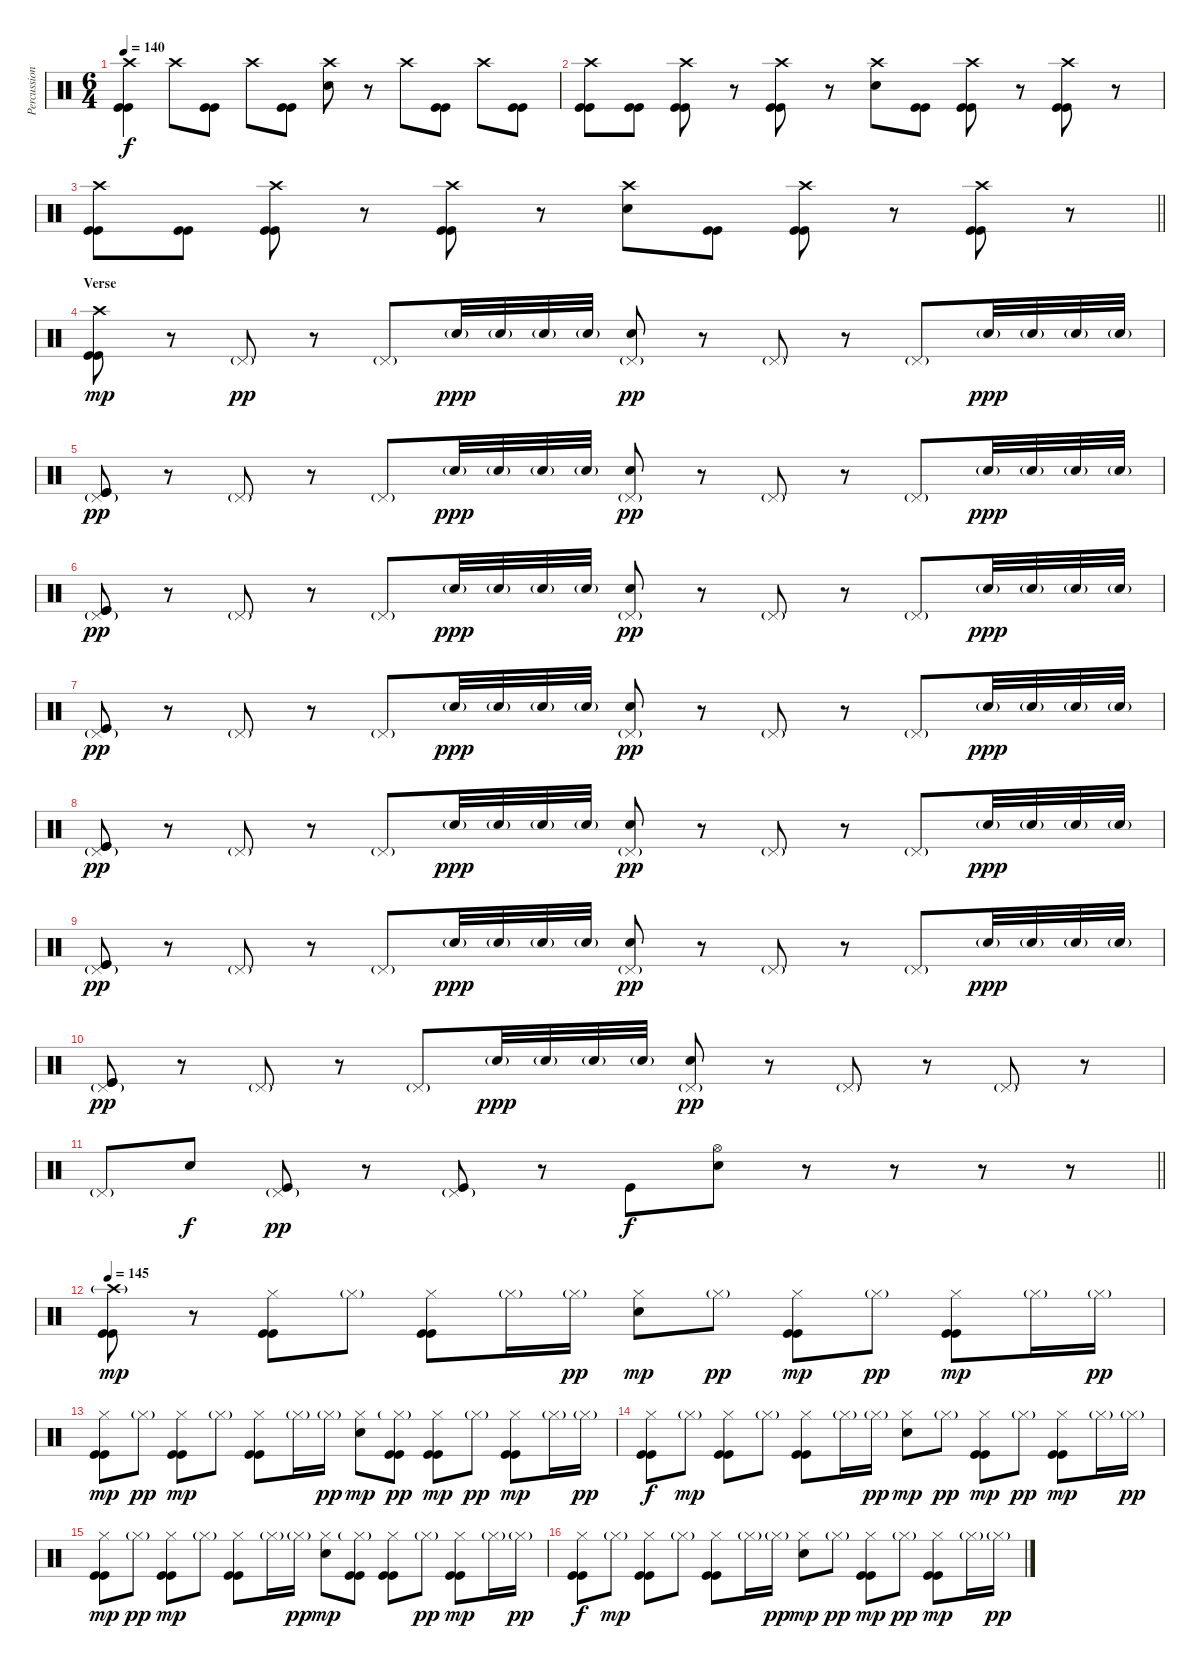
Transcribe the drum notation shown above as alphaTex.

\track ("Percussion" "Percussion") {instrument percussion}
\staff {score}
\articulation defaults
\ts (6 4)
\tempo 140
\clef neutral
\ks c
("Crash high (hit)" "Kick (hit)" "Kick (hit)").4{dy f} "Crash high (hit)".8 ("Kick (hit)" "Kick (hit)").8 "Crash high (hit)".8 ("Kick (hit)" "Kick (hit)").8 ("Crash high (hit)" "Snare (hit) 2").8 r.8 "Crash high (hit)".8 ("Kick (hit)" "Kick (hit)").8 "Crash high (hit)".8 ("Kick (hit)" "Kick (hit)").8 |
("Crash high (hit)" "Kick (hit)" "Kick (hit)").8 ("Kick (hit)" "Kick (hit)").8 ("Crash high (hit)" "Kick (hit)" "Kick (hit)").8 r.8 ("Crash high (hit)" "Kick (hit)" "Kick (hit)").8 r.8 ("Crash high (hit)" "Snare (hit) 2").8 ("Kick (hit)" "Kick (hit)").8 ("Crash high (hit)" "Kick (hit)" "Kick (hit)").8 r.8 ("Crash high (hit)" "Kick (hit)" "Kick (hit)").8 r.8 |
\barLineRight lightlight
("Crash high (hit)" "Kick (hit)" "Kick (hit)").8 ("Kick (hit)" "Kick (hit)").8 ("Crash high (hit)" "Kick (hit)" "Kick (hit)").8 r.8 ("Crash high (hit)" "Kick (hit)" "Kick (hit)").8 r.8 ("Crash high (hit)" "Snare (hit) 2").8 ("Kick (hit)" "Kick (hit)").8 ("Crash high (hit)" "Kick (hit)" "Kick (hit)").8 r.8 ("Crash high (hit)" "Kick (hit)" "Kick (hit)").8 r.8 |
\section ("" "Verse")
("Crash high (hit)" "Kick (hit)" "Kick (hit)").8{dy mp} r.8 "Pedal Hi-Hat (hit)"{g}.8{dy pp} r.8 "Pedal Hi-Hat (hit)"{g}.8 "Snare (hit) 2"{g}.32{dy ppp} "Snare (hit) 2"{g}.32 "Snare (hit) 2"{g}.32 "Snare (hit) 2"{g}.32 ("Pedal Hi-Hat (hit)"{g} "Snare (hit) 2").8{dy pp} r.8 "Pedal Hi-Hat (hit)"{g}.8 r.8 "Pedal Hi-Hat (hit)"{g}.8 "Snare (hit) 2"{g}.32{dy ppp} "Snare (hit) 2"{g}.32 "Snare (hit) 2"{g}.32 "Snare (hit) 2"{g}.32 |
("Pedal Hi-Hat (hit)"{g} "Kick (hit)" "Kick (hit)").8{dy pp} r.8 "Pedal Hi-Hat (hit)"{g}.8 r.8 "Pedal Hi-Hat (hit)"{g}.8 "Snare (hit) 2"{g}.32{dy ppp} "Snare (hit) 2"{g}.32 "Snare (hit) 2"{g}.32 "Snare (hit) 2"{g}.32 ("Pedal Hi-Hat (hit)"{g} "Snare (hit) 2").8{dy pp} r.8 "Pedal Hi-Hat (hit)"{g}.8 r.8 "Pedal Hi-Hat (hit)"{g}.8 "Snare (hit) 2"{g}.32{dy ppp} "Snare (hit) 2"{g}.32 "Snare (hit) 2"{g}.32 "Snare (hit) 2"{g}.32 |
("Pedal Hi-Hat (hit)"{g} "Kick (hit)" "Kick (hit)").8{dy pp} r.8 "Pedal Hi-Hat (hit)"{g}.8 r.8 "Pedal Hi-Hat (hit)"{g}.8 "Snare (hit) 2"{g}.32{dy ppp} "Snare (hit) 2"{g}.32 "Snare (hit) 2"{g}.32 "Snare (hit) 2"{g}.32 ("Pedal Hi-Hat (hit)"{g} "Snare (hit) 2").8{dy pp} r.8 "Pedal Hi-Hat (hit)"{g}.8 r.8 "Pedal Hi-Hat (hit)"{g}.8 "Snare (hit) 2"{g}.32{dy ppp} "Snare (hit) 2"{g}.32 "Snare (hit) 2"{g}.32 "Snare (hit) 2"{g}.32 |
("Pedal Hi-Hat (hit)"{g} "Kick (hit)" "Kick (hit)").8{dy pp} r.8 "Pedal Hi-Hat (hit)"{g}.8 r.8 "Pedal Hi-Hat (hit)"{g}.8 "Snare (hit) 2"{g}.32{dy ppp} "Snare (hit) 2"{g}.32 "Snare (hit) 2"{g}.32 "Snare (hit) 2"{g}.32 ("Pedal Hi-Hat (hit)"{g} "Snare (hit) 2").8{dy pp} r.8 "Pedal Hi-Hat (hit)"{g}.8 r.8 "Pedal Hi-Hat (hit)"{g}.8 "Snare (hit) 2"{g}.32{dy ppp} "Snare (hit) 2"{g}.32 "Snare (hit) 2"{g}.32 "Snare (hit) 2"{g}.32 |
("Pedal Hi-Hat (hit)"{g} "Kick (hit)" "Kick (hit)").8{dy pp} r.8 "Pedal Hi-Hat (hit)"{g}.8 r.8 "Pedal Hi-Hat (hit)"{g}.8 "Snare (hit) 2"{g}.32{dy ppp} "Snare (hit) 2"{g}.32 "Snare (hit) 2"{g}.32 "Snare (hit) 2"{g}.32 ("Pedal Hi-Hat (hit)"{g} "Snare (hit) 2").8{dy pp} r.8 "Pedal Hi-Hat (hit)"{g}.8 r.8 "Pedal Hi-Hat (hit)"{g}.8 "Snare (hit) 2"{g}.32{dy ppp} "Snare (hit) 2"{g}.32 "Snare (hit) 2"{g}.32 "Snare (hit) 2"{g}.32 |
("Pedal Hi-Hat (hit)"{g} "Kick (hit)" "Kick (hit)").8{dy pp} r.8 "Pedal Hi-Hat (hit)"{g}.8 r.8 "Pedal Hi-Hat (hit)"{g}.8 "Snare (hit) 2"{g}.32{dy ppp} "Snare (hit) 2"{g}.32 "Snare (hit) 2"{g}.32 "Snare (hit) 2"{g}.32 ("Pedal Hi-Hat (hit)"{g} "Snare (hit) 2").8{dy pp} r.8 "Pedal Hi-Hat (hit)"{g}.8 r.8 "Pedal Hi-Hat (hit)"{g}.8 "Snare (hit) 2"{g}.32{dy ppp} "Snare (hit) 2"{g}.32 "Snare (hit) 2"{g}.32 "Snare (hit) 2"{g}.32 |
("Pedal Hi-Hat (hit)"{g} "Kick (hit)" "Kick (hit)").8{dy pp} r.8 "Pedal Hi-Hat (hit)"{g}.8 r.8 "Pedal Hi-Hat (hit)"{g}.8 "Snare (hit) 2"{g}.32{dy ppp} "Snare (hit) 2"{g}.32 "Snare (hit) 2"{g}.32 "Snare (hit) 2"{g}.32 ("Pedal Hi-Hat (hit)"{g} "Snare (hit) 2").8{dy pp} r.8 "Pedal Hi-Hat (hit)"{g}.8 r.8 "Pedal Hi-Hat (hit)"{g}.8 r.8 |
\barLineRight lightlight "Pedal Hi-Hat (hit)"{g}.8 "Snare (hit) 2".8{dy f}
("Pedal Hi-Hat (hit)"{g} "Kick (hit)").8{dy pp} r.8 ("Pedal Hi-Hat (hit)"{g} "Kick (hit)").8 r.8 "Kick (hit)".8{dy f} ("Hi-Hat (open)" "Snare (hit) 2").8 r.8 r.8 r.8 r.8 |
\tempo 145
("Crash high (hit)"{g} "Kick (hit)" "Kick (hit)").8{dy mp} r.8 ("Hi-Hat (closed)" "Kick (hit)" "Kick (hit)").8 "Hi-Hat (closed)"{g}.8 ("Hi-Hat (closed)" "Kick (hit)" "Kick (hit)").8 "Hi-Hat (closed)"{g}.16 "Hi-Hat (closed)"{g}.16{dy pp} ("Hi-Hat (closed)" "Snare (hit) 2").8{dy mp} "Hi-Hat (closed)"{g}.8{dy pp} ("Hi-Hat (closed)" "Kick (hit)" "Kick (hit)").8{dy mp} "Hi-Hat (closed)"{g}.8{dy pp} ("Hi-Hat (closed)" "Kick (hit)" "Kick (hit)").8{dy mp} "Hi-Hat (closed)"{g}.16 "Hi-Hat (closed)"{g}.16{dy pp} |
("Hi-Hat (closed)" "Kick (hit)" "Kick (hit)").8{dy mp} "Hi-Hat (closed)"{g}.8{dy pp} ("Hi-Hat (closed)" "Kick (hit)" "Kick (hit)").8{dy mp} "Hi-Hat (closed)"{g}.8 ("Hi-Hat (closed)" "Kick (hit)" "Kick (hit)").8 "Hi-Hat (closed)"{g}.16 "Hi-Hat (closed)"{g}.16{dy pp} ("Hi-Hat (closed)" "Snare (hit) 2").8{dy mp} ("Hi-Hat (closed)"{g} "Kick (hit)" "Kick (hit)").8{dy pp} ("Hi-Hat (closed)" "Kick (hit)" "Kick (hit)").8{dy mp} "Hi-Hat (closed)"{g}.8{dy pp} ("Hi-Hat (closed)" "Kick (hit)" "Kick (hit)").8{dy mp} "Hi-Hat (closed)"{g}.16 "Hi-Hat (closed)"{g}.16{dy pp} |
("Hi-Hat (closed)" "Kick (hit)" "Kick (hit)").8{dy f} "Hi-Hat (closed)"{g}.8{dy mp} ("Hi-Hat (closed)" "Kick (hit)" "Kick (hit)").8 "Hi-Hat (closed)"{g}.8 ("Hi-Hat (closed)" "Kick (hit)" "Kick (hit)").8 "Hi-Hat (closed)"{g}.16 "Hi-Hat (closed)"{g}.16{dy pp} ("Hi-Hat (closed)" "Snare (hit) 2").8{dy mp} "Hi-Hat (closed)"{g}.8{dy pp} ("Hi-Hat (closed)" "Kick (hit)" "Kick (hit)").8{dy mp} "Hi-Hat (closed)"{g}.8{dy pp} ("Hi-Hat (closed)" "Kick (hit)" "Kick (hit)").8{dy mp} "Hi-Hat (closed)"{g}.16 "Hi-Hat (closed)"{g}.16{dy pp} |
("Hi-Hat (closed)" "Kick (hit)" "Kick (hit)").8{dy mp} "Hi-Hat (closed)"{g}.8{dy pp} ("Hi-Hat (closed)" "Kick (hit)" "Kick (hit)").8{dy mp} "Hi-Hat (closed)"{g}.8 ("Hi-Hat (closed)" "Kick (hit)" "Kick (hit)").8 "Hi-Hat (closed)"{g}.16 "Hi-Hat (closed)"{g}.16{dy pp} ("Hi-Hat (closed)" "Snare (hit) 2").8{dy mp} ("Hi-Hat (closed)"{g} "Kick (hit)" "Kick (hit)").8 ("Hi-Hat (closed)" "Kick (hit)" "Kick (hit)").8 "Hi-Hat (closed)"{g}.8{dy pp} ("Hi-Hat (closed)" "Kick (hit)" "Kick (hit)").8{dy mp} "Hi-Hat (closed)"{g}.16 "Hi-Hat (closed)"{g}.16{dy pp} |
("Hi-Hat (closed)" "Kick (hit)" "Kick (hit)").8{dy f} "Hi-Hat (closed)"{g}.8{dy mp} ("Hi-Hat (closed)" "Kick (hit)" "Kick (hit)").8 "Hi-Hat (closed)"{g}.8 ("Hi-Hat (closed)" "Kick (hit)" "Kick (hit)").8 "Hi-Hat (closed)"{g}.16 "Hi-Hat (closed)"{g}.16{dy pp} ("Hi-Hat (closed)" "Snare (hit) 2").8{dy mp} "Hi-Hat (closed)"{g}.8{dy pp} ("Hi-Hat (closed)" "Kick (hit)" "Kick (hit)").8{dy mp} "Hi-Hat (closed)"{g}.8{dy pp} ("Hi-Hat (closed)" "Kick (hit)" "Kick (hit)").8{dy mp} "Hi-Hat (closed)"{g}.16 "Hi-Hat (closed)"{g}.16{dy pp}
